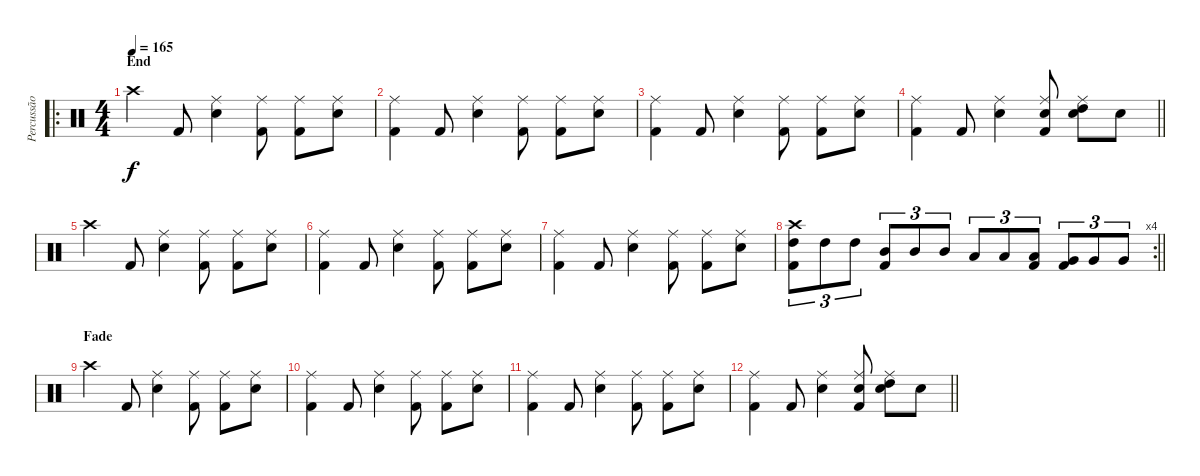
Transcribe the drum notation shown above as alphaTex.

\track ("Percussão" "Percussão") {instrument percussion}
\staff {score}
\articulation defaults
\ro
\ts (4 4)
\section ("" "End")
\tempo 165
\clef neutral
\ks c "Crash high (hit)".4{dy f} "Kick (hit) 2".8
("Ride (middle)" "Snare (hit) 2").4 ("Ride (middle)" "Kick (hit) 2").8 ("Ride (middle)" "Kick (hit) 2").8 ("Ride (middle)" "Snare (hit) 2").8 |
("Ride (middle)" "Kick (hit) 2").4 "Kick (hit) 2".8 ("Ride (middle)" "Snare (hit) 2").4 ("Ride (middle)" "Kick (hit) 2").8 ("Ride (middle)" "Kick (hit) 2").8 ("Ride (middle)" "Snare (hit) 2").8 |
("Ride (middle)" "Kick (hit) 2").4 "Kick (hit) 2".8 ("Ride (middle)" "Snare (hit) 2").4 ("Ride (middle)" "Kick (hit) 2").8 ("Ride (middle)" "Kick (hit) 2").8 ("Ride (middle)" "Snare (hit) 2").8 |
\barLineRight lightlight
("Ride (middle)" "Kick (hit) 2").4 "Kick (hit) 2".8 ("Ride (middle)" "Snare (hit) 2").4 ("Ride (middle)" "Snare (hit) 2" "Kick (hit) 2").8 ("Ride (middle)" "Snare (hit) 2" "High Tom (hit)").8 "Snare (hit) 2".8 |
"Crash high (hit)".4 "Kick (hit) 2".8 ("Ride (middle)" "Snare (hit) 2").4 ("Ride (middle)" "Kick (hit) 2").8 ("Ride (middle)" "Kick (hit) 2").8 ("Ride (middle)" "Snare (hit) 2").8 |
("Ride (middle)" "Kick (hit) 2").4 "Kick (hit) 2".8 ("Ride (middle)" "Snare (hit) 2").4 ("Ride (middle)" "Kick (hit) 2").8 ("Ride (middle)" "Kick (hit) 2").8 ("Ride (middle)" "Snare (hit) 2").8 |
("Ride (middle)" "Kick (hit) 2").4 "Kick (hit) 2".8 ("Ride (middle)" "Snare (hit) 2").4 ("Ride (middle)" "Kick (hit) 2").8 ("Ride (middle)" "Kick (hit) 2").8 ("Ride (middle)" "Snare (hit) 2").8 |
\rc 4
\barLineRight lightlight
("Crash high (hit)" "High Tom (hit)" "Kick (hit) 2").8{tu (3 2)} "High Tom (hit)".8{tu (3 2)} "High Tom (hit)".8{tu (3 2)} ("Mid Tom (hit)" "Kick (hit) 2").8{tu (3 2)} "Mid Tom (hit)".8{tu (3 2)} "Mid Tom (hit)".8{tu (3 2)} "Low Tom (hit)".8{tu (3 2)} "Low Tom (hit)".8{tu (3 2)} ("Low Tom (hit)" "Kick (hit) 2").8{tu (3 2)} ("Very Low Tom (hit)" "Kick (hit) 2").8{tu (3 2)} "Very Low Tom (hit)".8{tu (3 2)} "Very Low Tom (hit)".8{tu (3 2)} |
\section ("" "Fade")
"Crash high (hit)".4 "Kick (hit) 2".8 ("Ride (middle)" "Snare (hit) 2").4 ("Ride (middle)" "Kick (hit) 2").8 ("Ride (middle)" "Kick (hit) 2").8 ("Ride (middle)" "Snare (hit) 2").8 |
("Ride (middle)" "Kick (hit) 2").4 "Kick (hit) 2".8 ("Ride (middle)" "Snare (hit) 2").4 ("Ride (middle)" "Kick (hit) 2").8 ("Ride (middle)" "Kick (hit) 2").8 ("Ride (middle)" "Snare (hit) 2").8 |
("Ride (middle)" "Kick (hit) 2").4 "Kick (hit) 2".8 ("Ride (middle)" "Snare (hit) 2").4 ("Ride (middle)" "Kick (hit) 2").8 ("Ride (middle)" "Kick (hit) 2").8 ("Ride (middle)" "Snare (hit) 2").8 |
\barLineRight lightlight
("Ride (middle)" "Kick (hit) 2").4 "Kick (hit) 2".8 ("Ride (middle)" "Snare (hit) 2").4 ("Ride (middle)" "Snare (hit) 2" "Kick (hit) 2").8 ("Ride (middle)" "Snare (hit) 2" "High Tom (hit)").8 "Snare (hit) 2".8
